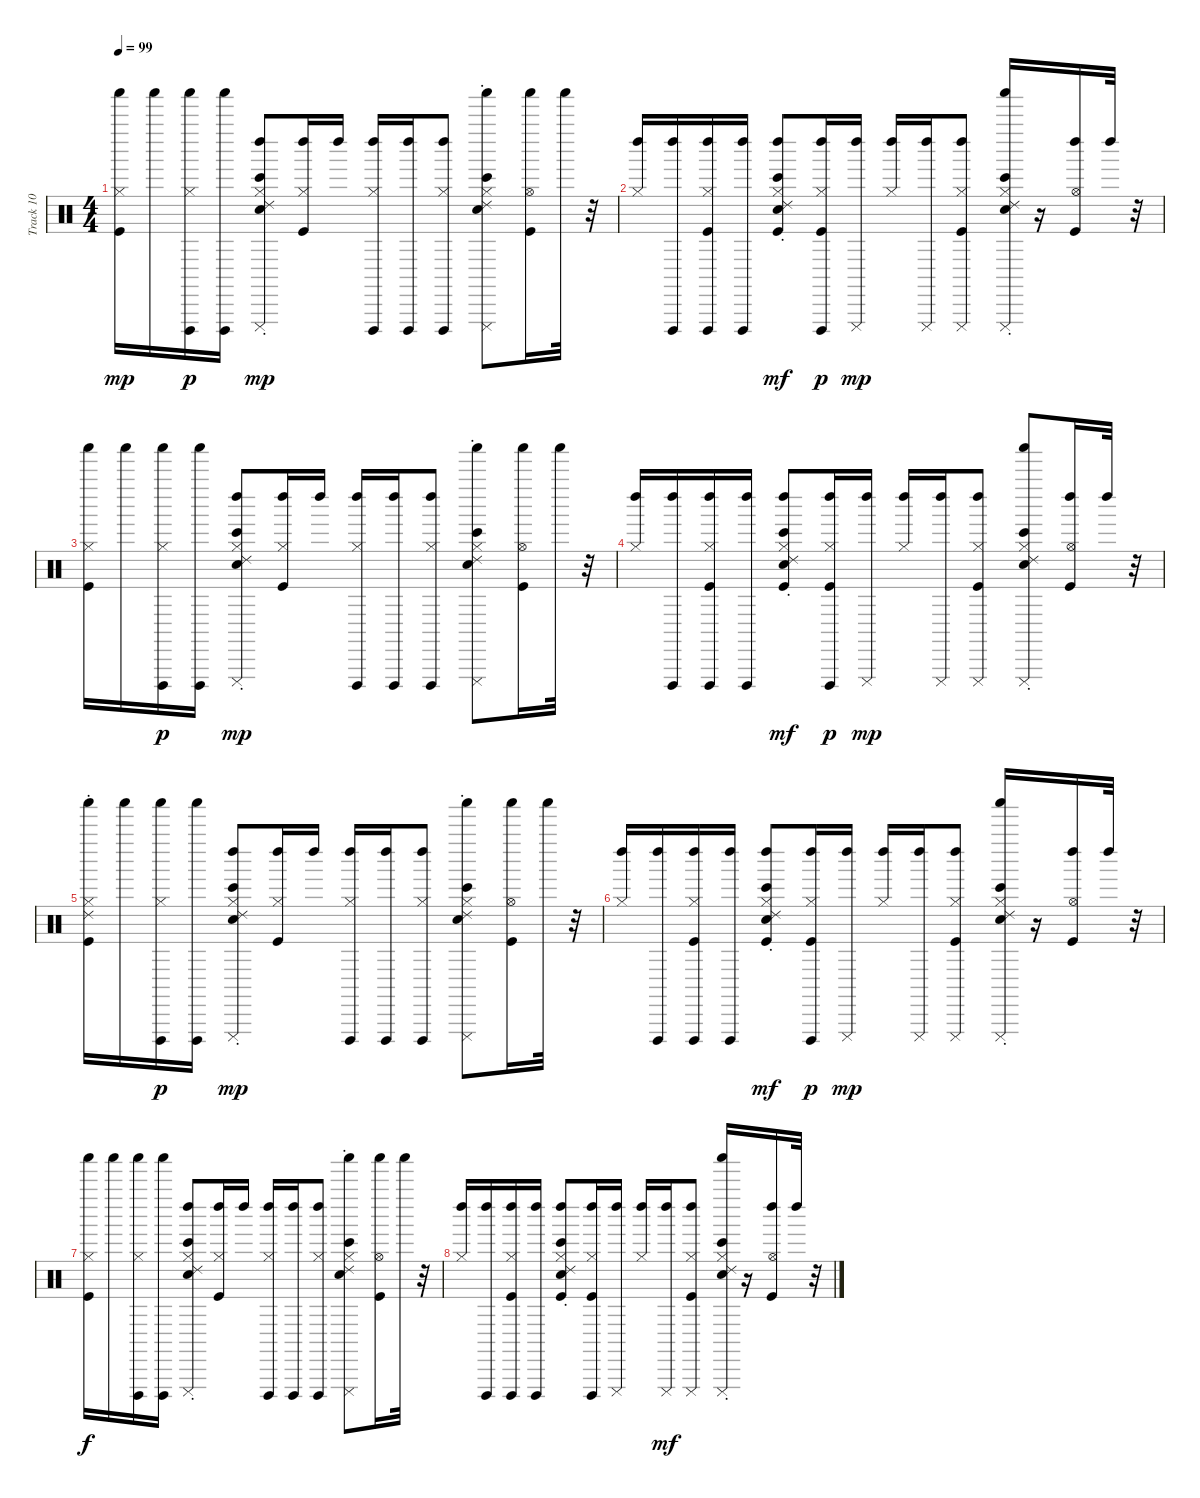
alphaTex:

\track ("Track 10" "Track 10") {instrument percussion}
\staff {score}
\articulation defaults
\ts (4 4)
\tempo 99
\clef neutral
\ks c
("Kick (hit)" "Hi-Hat (closed)" "Shaker (hit)").16{dy mp} "Shaker (hit)".16 ("Hi-Hat (closed)" "Cuica (open)" "Shaker (hit)").16{dy p} ("Cuica (open)" "Shaker (hit)").16 ("Bongo High (hit)" "Ride (choke) 2" "Electric Snare (hit)" "Hi-Hat (closed)" "Left Maraca (hit)" "Cuica (mute)").8{dy mp} ("Kick (hit)" "Hi-Hat (closed)" "Left Maraca (hit)").16 "Left Maraca (hit)".16 ("Hi-Hat (closed)" "Left Maraca (hit)" "Cuica (open)").16 ("Cuica (open)" "Left Maraca (hit)").16 ("Hi-Hat (closed)" "Left Maraca (hit)" "Cuica (open)").8 ("Bongo High (hit)" "Ride (choke) 2" "Electric Snare (hit)" "Hi-Hat (closed)" "Cuica (mute)" "Shaker (hit)").8 ("Kick (hit)" "Hi-Hat (open)" "Shaker (hit)").16 "Shaker (hit)".32 r.32 |
("Hi-Hat (closed)" "Left Maraca (hit)").16 ("Cuica (open)" "Left Maraca (hit)").16 ("Kick (hit)" "Hi-Hat (closed)" "Left Maraca (hit)" "Cuica (open)").16 ("Cuica (open)" "Left Maraca (hit)").16 ("Bongo High (hit)" "Ride (choke) 2" "Kick (hit)" "Electric Snare (hit)" "Hi-Hat (closed)" "Left Maraca (hit)").8{dy mf} ("Kick (hit)" "Hi-Hat (closed)" "Left Maraca (hit)" "Cuica (open)").16{dy p} ("Cuica (mute)" "Left Maraca (hit)").16{dy mp} ("Hi-Hat (closed)" "Left Maraca (hit)").16 ("Cuica (mute)" "Left Maraca (hit)").16 ("Kick (hit)" "Hi-Hat (closed)" "Left Maraca (hit)" "Cuica (mute)").8 ("Bongo High (hit)" "Ride (choke) 2" "Electric Snare (hit)" "Hi-Hat (closed)" "Cuica (mute)" "Shaker (hit)").16 r.16 ("Kick (hit)" "Hi-Hat (open)" "Left Maraca (hit)").16 "Left Maraca (hit)".32 r.32 |
("Kick (hit)" "Hi-Hat (closed)" "Shaker (hit)").16 "Shaker (hit)".16 ("Hi-Hat (closed)" "Cuica (open)" "Shaker (hit)").16{dy p} ("Cuica (open)" "Shaker (hit)").16 ("Bongo High (hit)" "Ride (choke) 2" "Electric Snare (hit)" "Hi-Hat (closed)" "Left Maraca (hit)" "Cuica (mute)").8{dy mp} ("Kick (hit)" "Hi-Hat (closed)" "Left Maraca (hit)").16 "Left Maraca (hit)".16 ("Hi-Hat (closed)" "Left Maraca (hit)" "Cuica (open)").16 ("Cuica (open)" "Left Maraca (hit)").16 ("Hi-Hat (closed)" "Left Maraca (hit)" "Cuica (open)").8 ("Bongo High (hit)" "Ride (choke) 2" "Electric Snare (hit)" "Hi-Hat (closed)" "Cuica (mute)" "Shaker (hit)").8 ("Kick (hit)" "Hi-Hat (open)" "Shaker (hit)").16 "Shaker (hit)".32 r.32 |
("Hi-Hat (closed)" "Left Maraca (hit)").16 ("Cuica (open)" "Left Maraca (hit)").16 ("Kick (hit)" "Hi-Hat (closed)" "Left Maraca (hit)" "Cuica (open)").16 ("Cuica (open)" "Left Maraca (hit)").16 ("Bongo High (hit)" "Ride (choke) 2" "Kick (hit)" "Electric Snare (hit)" "Hi-Hat (closed)" "Left Maraca (hit)").8{dy mf} ("Kick (hit)" "Hi-Hat (closed)" "Left Maraca (hit)" "Cuica (open)").16{dy p} ("Cuica (mute)" "Left Maraca (hit)").16{dy mp} ("Hi-Hat (closed)" "Left Maraca (hit)").16 ("Cuica (mute)" "Left Maraca (hit)").16 ("Kick (hit)" "Hi-Hat (closed)" "Left Maraca (hit)" "Cuica (mute)").8 ("Bongo High (hit)" "Ride (choke) 2" "Electric Snare (hit)" "Hi-Hat (closed)" "Cuica (mute)" "Shaker (hit)").8 ("Kick (hit)" "Hi-Hat (open)" "Left Maraca (hit)").16 "Left Maraca (hit)".32 r.32 |
("Ride (choke) 2" "Kick (hit)" "Hi-Hat (closed)" "Shaker (hit)").16 "Shaker (hit)".16 ("Hi-Hat (closed)" "Cuica (open)" "Shaker (hit)").16{dy p} ("Cuica (open)" "Shaker (hit)").16 ("Bongo High (hit)" "Ride (choke) 2" "Electric Snare (hit)" "Hi-Hat (closed)" "Left Maraca (hit)" "Cuica (mute)").8{dy mp} ("Kick (hit)" "Hi-Hat (closed)" "Left Maraca (hit)").16 "Left Maraca (hit)".16 ("Hi-Hat (closed)" "Left Maraca (hit)" "Cuica (open)").16 ("Cuica (open)" "Left Maraca (hit)").16 ("Hi-Hat (closed)" "Left Maraca (hit)" "Cuica (open)").8 ("Bongo High (hit)" "Ride (choke) 2" "Electric Snare (hit)" "Hi-Hat (closed)" "Cuica (mute)" "Shaker (hit)").8 ("Kick (hit)" "Hi-Hat (open)" "Shaker (hit)").16 "Shaker (hit)".32 r.32 |
("Hi-Hat (closed)" "Left Maraca (hit)").16 ("Cuica (open)" "Left Maraca (hit)").16 ("Kick (hit)" "Hi-Hat (closed)" "Left Maraca (hit)" "Cuica (open)").16 ("Cuica (open)" "Left Maraca (hit)").16 ("Bongo High (hit)" "Ride (choke) 2" "Kick (hit)" "Electric Snare (hit)" "Hi-Hat (closed)" "Left Maraca (hit)").8{dy mf} ("Kick (hit)" "Hi-Hat (closed)" "Left Maraca (hit)" "Cuica (open)").16{dy p} ("Cuica (mute)" "Left Maraca (hit)").16{dy mp} ("Hi-Hat (closed)" "Left Maraca (hit)").16 ("Cuica (mute)" "Left Maraca (hit)").16 ("Kick (hit)" "Hi-Hat (closed)" "Left Maraca (hit)" "Cuica (mute)").8 ("Bongo High (hit)" "Ride (choke) 2" "Electric Snare (hit)" "Hi-Hat (closed)" "Cuica (mute)" "Shaker (hit)").16 r.16 ("Kick (hit)" "Hi-Hat (open)" "Left Maraca (hit)").16 "Left Maraca (hit)".32 r.32 |
("Kick (hit)" "Hi-Hat (closed)" "Shaker (hit)").16{dy f} "Shaker (hit)".16 ("Hi-Hat (closed)" "Cuica (open)" "Shaker (hit)").16 ("Cuica (open)" "Shaker (hit)").16 ("Bongo High (hit)" "Ride (choke) 2" "Electric Snare (hit)" "Hi-Hat (closed)" "Left Maraca (hit)" "Cuica (mute)").8 ("Kick (hit)" "Hi-Hat (closed)" "Left Maraca (hit)").16 "Left Maraca (hit)".16 ("Hi-Hat (closed)" "Left Maraca (hit)" "Cuica (open)").16 ("Cuica (open)" "Left Maraca (hit)").16 ("Hi-Hat (closed)" "Left Maraca (hit)" "Cuica (open)").8 ("Bongo High (hit)" "Ride (choke) 2" "Electric Snare (hit)" "Hi-Hat (closed)" "Cuica (mute)" "Shaker (hit)").8 ("Kick (hit)" "Hi-Hat (open)" "Shaker (hit)").16 "Shaker (hit)".32 r.32 |
("Hi-Hat (closed)" "Left Maraca (hit)").16 ("Cuica (open)" "Left Maraca (hit)").16 ("Kick (hit)" "Hi-Hat (closed)" "Left Maraca (hit)" "Cuica (open)").16 ("Cuica (open)" "Left Maraca (hit)").16 ("Bongo High (hit)" "Ride (choke) 2" "Kick (hit)" "Electric Snare (hit)" "Hi-Hat (closed)" "Left Maraca (hit)").8 ("Kick (hit)" "Hi-Hat (closed)" "Left Maraca (hit)" "Cuica (open)").16 ("Cuica (mute)" "Left Maraca (hit)").16 ("Hi-Hat (closed)" "Left Maraca (hit)").16 ("Cuica (mute)" "Left Maraca (hit)").16{dy mf} ("Kick (hit)" "Hi-Hat (closed)" "Left Maraca (hit)" "Cuica (mute)").8 ("Bongo High (hit)" "Ride (choke) 2" "Electric Snare (hit)" "Hi-Hat (closed)" "Cuica (mute)" "Shaker (hit)").16 r.16 ("Kick (hit)" "Hi-Hat (open)" "Left Maraca (hit)").16 "Left Maraca (hit)".32 r.32
